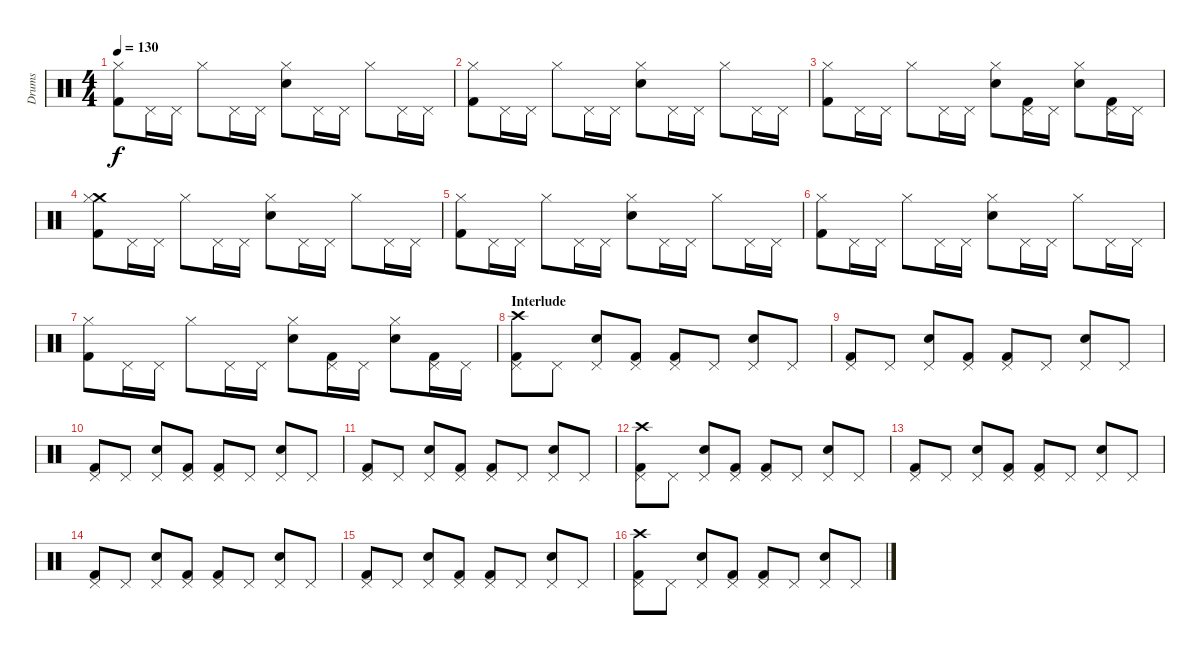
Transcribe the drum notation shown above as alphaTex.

\track ("Drums" "Drums") {instrument percussion}
\staff {score}
\articulation defaults
\ts (4 4)
\tempo 130
\clef neutral
\ks c
("Hi-Hat (closed)" "Kick (hit) 2").8{dy f} "Pedal Hi-Hat (hit)".16 "Pedal Hi-Hat (hit)".16 "Hi-Hat (closed)".8 "Pedal Hi-Hat (hit)".16 "Pedal Hi-Hat (hit)".16 ("Hi-Hat (closed)" "Electric Snare (hit)").8 "Pedal Hi-Hat (hit)".16 "Pedal Hi-Hat (hit)".16 "Hi-Hat (closed)".8 "Pedal Hi-Hat (hit)".16 "Pedal Hi-Hat (hit)".16 |
("Hi-Hat (closed)" "Kick (hit) 2").8 "Pedal Hi-Hat (hit)".16 "Pedal Hi-Hat (hit)".16 "Hi-Hat (closed)".8 "Pedal Hi-Hat (hit)".16 "Pedal Hi-Hat (hit)".16 ("Hi-Hat (closed)" "Electric Snare (hit)").8 "Pedal Hi-Hat (hit)".16 "Pedal Hi-Hat (hit)".16 "Hi-Hat (closed)".8 "Pedal Hi-Hat (hit)".16 "Pedal Hi-Hat (hit)".16 |
("Hi-Hat (closed)" "Kick (hit) 2").8 "Pedal Hi-Hat (hit)".16 "Pedal Hi-Hat (hit)".16 "Hi-Hat (closed)".8 "Pedal Hi-Hat (hit)".16 "Pedal Hi-Hat (hit)".16 ("Hi-Hat (closed)" "Electric Snare (hit)").8 ("Pedal Hi-Hat (hit)" "Kick (hit) 2").16 "Pedal Hi-Hat (hit)".16 ("Hi-Hat (closed)" "Electric Snare (hit)").8 ("Pedal Hi-Hat (hit)" "Kick (hit) 2").16 "Pedal Hi-Hat (hit)".16 |
("Crash medium (hit)" "Hi-Hat (closed)" "Kick (hit) 2").8 "Pedal Hi-Hat (hit)".16 "Pedal Hi-Hat (hit)".16 "Hi-Hat (closed)".8 "Pedal Hi-Hat (hit)".16 "Pedal Hi-Hat (hit)".16 ("Hi-Hat (closed)" "Electric Snare (hit)").8 "Pedal Hi-Hat (hit)".16 "Pedal Hi-Hat (hit)".16 "Hi-Hat (closed)".8 "Pedal Hi-Hat (hit)".16 "Pedal Hi-Hat (hit)".16 |
("Hi-Hat (closed)" "Kick (hit) 2").8 "Pedal Hi-Hat (hit)".16 "Pedal Hi-Hat (hit)".16 "Hi-Hat (closed)".8 "Pedal Hi-Hat (hit)".16 "Pedal Hi-Hat (hit)".16 ("Hi-Hat (closed)" "Electric Snare (hit)").8 "Pedal Hi-Hat (hit)".16 "Pedal Hi-Hat (hit)".16 "Hi-Hat (closed)".8 "Pedal Hi-Hat (hit)".16 "Pedal Hi-Hat (hit)".16 |
("Hi-Hat (closed)" "Kick (hit) 2").8 "Pedal Hi-Hat (hit)".16 "Pedal Hi-Hat (hit)".16 "Hi-Hat (closed)".8 "Pedal Hi-Hat (hit)".16 "Pedal Hi-Hat (hit)".16 ("Hi-Hat (closed)" "Electric Snare (hit)").8 "Pedal Hi-Hat (hit)".16 "Pedal Hi-Hat (hit)".16 "Hi-Hat (closed)".8 "Pedal Hi-Hat (hit)".16 "Pedal Hi-Hat (hit)".16 |
("Hi-Hat (closed)" "Kick (hit) 2").8 "Pedal Hi-Hat (hit)".16 "Pedal Hi-Hat (hit)".16 "Hi-Hat (closed)".8 "Pedal Hi-Hat (hit)".16 "Pedal Hi-Hat (hit)".16 ("Hi-Hat (closed)" "Electric Snare (hit)").8 ("Pedal Hi-Hat (hit)" "Kick (hit) 2").16 "Pedal Hi-Hat (hit)".16 ("Hi-Hat (closed)" "Electric Snare (hit)").8 ("Pedal Hi-Hat (hit)" "Kick (hit) 2").16 "Pedal Hi-Hat (hit)".16 |
\section ("" "Interlude")
("Crash high (hit)" "Pedal Hi-Hat (hit)" "Kick (hit) 2").8 "Pedal Hi-Hat (hit)".8 ("Pedal Hi-Hat (hit)" "Electric Snare (hit)").8 ("Pedal Hi-Hat (hit)" "Kick (hit) 2").8 ("Pedal Hi-Hat (hit)" "Kick (hit) 2").8 "Pedal Hi-Hat (hit)".8 ("Pedal Hi-Hat (hit)" "Electric Snare (hit)").8 "Pedal Hi-Hat (hit)".8 |
("Pedal Hi-Hat (hit)" "Kick (hit) 2").8 "Pedal Hi-Hat (hit)".8 ("Pedal Hi-Hat (hit)" "Electric Snare (hit)").8 ("Pedal Hi-Hat (hit)" "Kick (hit) 2").8 ("Pedal Hi-Hat (hit)" "Kick (hit) 2").8 "Pedal Hi-Hat (hit)".8 ("Pedal Hi-Hat (hit)" "Electric Snare (hit)").8 "Pedal Hi-Hat (hit)".8 |
("Pedal Hi-Hat (hit)" "Kick (hit) 2").8 "Pedal Hi-Hat (hit)".8 ("Pedal Hi-Hat (hit)" "Electric Snare (hit)").8 ("Pedal Hi-Hat (hit)" "Kick (hit) 2").8 ("Pedal Hi-Hat (hit)" "Kick (hit) 2").8 "Pedal Hi-Hat (hit)".8 ("Pedal Hi-Hat (hit)" "Electric Snare (hit)").8 "Pedal Hi-Hat (hit)".8 |
("Pedal Hi-Hat (hit)" "Kick (hit) 2").8 "Pedal Hi-Hat (hit)".8 ("Pedal Hi-Hat (hit)" "Electric Snare (hit)").8 ("Pedal Hi-Hat (hit)" "Kick (hit) 2").8 ("Pedal Hi-Hat (hit)" "Kick (hit) 2").8 "Pedal Hi-Hat (hit)".8 ("Pedal Hi-Hat (hit)" "Electric Snare (hit)").8 "Pedal Hi-Hat (hit)".8 |
("Crash high (hit)" "Pedal Hi-Hat (hit)" "Kick (hit) 2").8 "Pedal Hi-Hat (hit)".8 ("Pedal Hi-Hat (hit)" "Electric Snare (hit)").8 ("Pedal Hi-Hat (hit)" "Kick (hit) 2").8 ("Pedal Hi-Hat (hit)" "Kick (hit) 2").8 "Pedal Hi-Hat (hit)".8 ("Pedal Hi-Hat (hit)" "Electric Snare (hit)").8 "Pedal Hi-Hat (hit)".8 |
("Pedal Hi-Hat (hit)" "Kick (hit) 2").8 "Pedal Hi-Hat (hit)".8 ("Pedal Hi-Hat (hit)" "Electric Snare (hit)").8 ("Pedal Hi-Hat (hit)" "Kick (hit) 2").8 ("Pedal Hi-Hat (hit)" "Kick (hit) 2").8 "Pedal Hi-Hat (hit)".8 ("Pedal Hi-Hat (hit)" "Electric Snare (hit)").8 "Pedal Hi-Hat (hit)".8 |
("Pedal Hi-Hat (hit)" "Kick (hit) 2").8 "Pedal Hi-Hat (hit)".8 ("Pedal Hi-Hat (hit)" "Electric Snare (hit)").8 ("Pedal Hi-Hat (hit)" "Kick (hit) 2").8 ("Pedal Hi-Hat (hit)" "Kick (hit) 2").8 "Pedal Hi-Hat (hit)".8 ("Pedal Hi-Hat (hit)" "Electric Snare (hit)").8 "Pedal Hi-Hat (hit)".8 |
("Pedal Hi-Hat (hit)" "Kick (hit) 2").8 "Pedal Hi-Hat (hit)".8 ("Pedal Hi-Hat (hit)" "Electric Snare (hit)").8 ("Pedal Hi-Hat (hit)" "Kick (hit) 2").8 ("Pedal Hi-Hat (hit)" "Kick (hit) 2").8 "Pedal Hi-Hat (hit)".8 ("Pedal Hi-Hat (hit)" "Electric Snare (hit)").8 "Pedal Hi-Hat (hit)".8 |
("Crash high (hit)" "Pedal Hi-Hat (hit)" "Kick (hit) 2").8 "Pedal Hi-Hat (hit)".8 ("Pedal Hi-Hat (hit)" "Electric Snare (hit)").8 ("Pedal Hi-Hat (hit)" "Kick (hit) 2").8 ("Pedal Hi-Hat (hit)" "Kick (hit) 2").8 "Pedal Hi-Hat (hit)".8 ("Pedal Hi-Hat (hit)" "Electric Snare (hit)").8 "Pedal Hi-Hat (hit)".8
